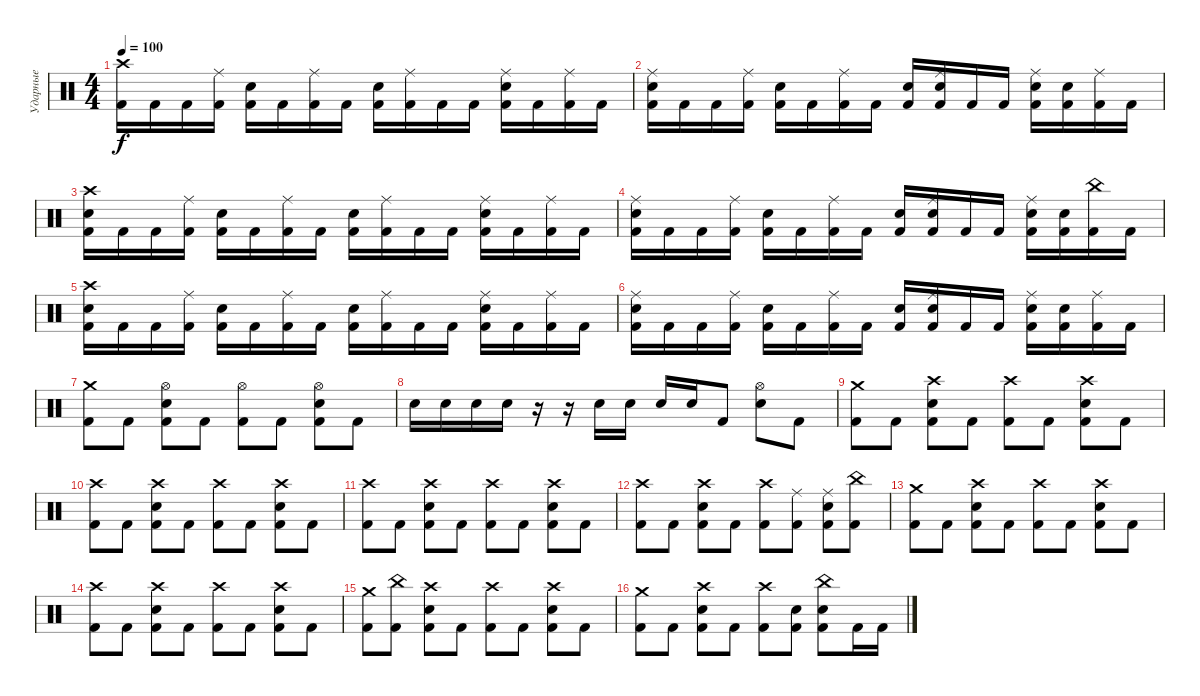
\track ("Ударные" "Ударные") {instrument percussion}
\staff {score}
\articulation defaults
\ts (4 4)
\tempo 100
\clef neutral
\ks c
("Crash high (hit)" "Kick (hit) 2").16{dy f} "Kick (hit) 2".16 "Kick (hit) 2".16 ("Ride (middle)" "Kick (hit) 2").16 ("Electric Snare (hit)" "Kick (hit) 2").16 "Kick (hit) 2".16 ("Ride (middle)" "Kick (hit) 2").16 "Kick (hit) 2".16 ("Electric Snare (hit)" "Kick (hit) 2").16 ("Ride (middle)" "Kick (hit) 2").16 "Kick (hit) 2".16 "Kick (hit) 2".16 ("Ride (middle)" "Electric Snare (hit)" "Kick (hit) 2").16 "Kick (hit) 2".16 ("Ride (middle)" "Kick (hit) 2").16 "Kick (hit) 2".16 |
("Ride (middle)" "Electric Snare (hit)" "Kick (hit) 2").16 "Kick (hit) 2".16 "Kick (hit) 2".16 ("Ride (middle)" "Kick (hit) 2").16 ("Electric Snare (hit)" "Kick (hit) 2").16 "Kick (hit) 2".16 ("Ride (middle)" "Kick (hit) 2").16 "Kick (hit) 2".16 ("Electric Snare (hit)" "Kick (hit) 2").16 ("Ride (middle)" "Electric Snare (hit)" "Kick (hit) 2").16 "Kick (hit) 2".16 "Kick (hit) 2".16 ("Ride (middle)" "Electric Snare (hit)" "Kick (hit) 2").16 ("Electric Snare (hit)" "Kick (hit) 2").16 ("Ride (middle)" "Kick (hit) 2").16 "Kick (hit) 2".16 |
("Crash high (hit)" "Electric Snare (hit)" "Kick (hit) 2").16 "Kick (hit) 2".16 "Kick (hit) 2".16 ("Ride (middle)" "Kick (hit) 2").16 ("Electric Snare (hit)" "Kick (hit) 2").16 "Kick (hit) 2".16 ("Ride (middle)" "Kick (hit) 2").16 "Kick (hit) 2".16 ("Electric Snare (hit)" "Kick (hit) 2").16 ("Ride (middle)" "Kick (hit) 2").16 "Kick (hit) 2".16 "Kick (hit) 2".16 ("Ride (middle)" "Electric Snare (hit)" "Kick (hit) 2").16 "Kick (hit) 2".16 ("Ride (middle)" "Kick (hit) 2").16 "Kick (hit) 2".16 |
("Ride (middle)" "Electric Snare (hit)" "Kick (hit) 2").16 "Kick (hit) 2".16 "Kick (hit) 2".16 ("Ride (middle)" "Kick (hit) 2").16 ("Electric Snare (hit)" "Kick (hit) 2").16 "Kick (hit) 2".16 ("Ride (middle)" "Kick (hit) 2").16 "Kick (hit) 2".16 ("Electric Snare (hit)" "Kick (hit) 2").16 ("Ride (middle)" "Electric Snare (hit)" "Kick (hit) 2").16 "Kick (hit) 2".16 "Kick (hit) 2".16 ("Ride (middle)" "Electric Snare (hit)" "Kick (hit) 2").16 ("Electric Snare (hit)" "Kick (hit) 2").16 ("China (hit)" "Kick (hit) 2").16 "Kick (hit) 2".16 |
("Crash high (hit)" "Electric Snare (hit)" "Kick (hit) 2").16 "Kick (hit) 2".16 "Kick (hit) 2".16 ("Ride (middle)" "Kick (hit) 2").16 ("Electric Snare (hit)" "Kick (hit) 2").16 "Kick (hit) 2".16 ("Ride (middle)" "Kick (hit) 2").16 "Kick (hit) 2".16 ("Electric Snare (hit)" "Kick (hit) 2").16 ("Ride (middle)" "Kick (hit) 2").16 "Kick (hit) 2".16 "Kick (hit) 2".16 ("Ride (middle)" "Electric Snare (hit)" "Kick (hit) 2").16 "Kick (hit) 2".16 ("Ride (middle)" "Kick (hit) 2").16 "Kick (hit) 2".16 |
("Ride (middle)" "Electric Snare (hit)" "Kick (hit) 2").16 "Kick (hit) 2".16 "Kick (hit) 2".16 ("Ride (middle)" "Kick (hit) 2").16 ("Electric Snare (hit)" "Kick (hit) 2").16 "Kick (hit) 2".16 ("Ride (middle)" "Kick (hit) 2").16 "Kick (hit) 2".16 ("Electric Snare (hit)" "Kick (hit) 2").16 ("Ride (middle)" "Electric Snare (hit)" "Kick (hit) 2").16 "Kick (hit) 2".16 "Kick (hit) 2".16 ("Ride (middle)" "Electric Snare (hit)" "Kick (hit) 2").16 ("Electric Snare (hit)" "Kick (hit) 2").16 ("Ride (middle)" "Kick (hit) 2").16 "Kick (hit) 2".16 |
("Crash medium (hit)" "Kick (hit) 2").8 "Kick (hit) 2".8 ("Hi-Hat (open)" "Electric Snare (hit)" "Kick (hit) 2").8 "Kick (hit) 2".8 ("Hi-Hat (open)" "Kick (hit) 2").8 "Kick (hit) 2".8 ("Hi-Hat (open)" "Electric Snare (hit)" "Kick (hit) 2").8 "Kick (hit) 2".8 |
"Electric Snare (hit)".16 "Electric Snare (hit)".16 "Electric Snare (hit)".16 "Electric Snare (hit)".16 r.16 r.16 "Electric Snare (hit)".16 "Electric Snare (hit)".16 "Electric Snare (hit)".16 "Electric Snare (hit)".16 "Kick (hit) 2".8 ("Hi-Hat (open)" "Electric Snare (hit)").8 "Kick (hit) 2".8 |
("Crash medium (hit)" "Kick (hit) 2").8 "Kick (hit) 2".8 ("Crash high (hit)" "Electric Snare (hit)" "Kick (hit) 2").8 "Kick (hit) 2".8 ("Crash high (hit)" "Kick (hit) 2").8 "Kick (hit) 2".8 ("Crash high (hit)" "Electric Snare (hit)" "Kick (hit) 2").8 "Kick (hit) 2".8 |
("Crash high (hit)" "Kick (hit) 2").8 "Kick (hit) 2".8 ("Crash high (hit)" "Electric Snare (hit)" "Kick (hit) 2").8 "Kick (hit) 2".8 ("Crash high (hit)" "Kick (hit) 2").8 "Kick (hit) 2".8 ("Crash high (hit)" "Electric Snare (hit)" "Kick (hit) 2").8 "Kick (hit) 2".8 |
("Crash high (hit)" "Kick (hit) 2").8 "Kick (hit) 2".8 ("Crash high (hit)" "Electric Snare (hit)" "Kick (hit) 2").8 "Kick (hit) 2".8 ("Crash high (hit)" "Kick (hit) 2").8 "Kick (hit) 2".8 ("Crash high (hit)" "Electric Snare (hit)" "Kick (hit) 2").8 "Kick (hit) 2".8 |
("Crash high (hit)" "Kick (hit) 2").8 "Kick (hit) 2".8 ("Crash high (hit)" "Electric Snare (hit)" "Kick (hit) 2").8 "Kick (hit) 2".8 ("Crash high (hit)" "Kick (hit) 2").8 ("Ride (middle)" "Kick (hit) 2").8 ("Ride (middle)" "Electric Snare (hit)" "Kick (hit) 2").8 ("China (hit)" "Kick (hit) 2").8 |
("Crash medium (hit)" "Kick (hit) 2").8 "Kick (hit) 2".8 ("Crash high (hit)" "Electric Snare (hit)" "Kick (hit) 2").8 "Kick (hit) 2".8 ("Crash high (hit)" "Kick (hit) 2").8 "Kick (hit) 2".8 ("Crash high (hit)" "Electric Snare (hit)" "Kick (hit) 2").8 "Kick (hit) 2".8 |
("Crash high (hit)" "Kick (hit) 2").8 "Kick (hit) 2".8 ("Crash high (hit)" "Electric Snare (hit)" "Kick (hit) 2").8 "Kick (hit) 2".8 ("Crash high (hit)" "Kick (hit) 2").8 "Kick (hit) 2".8 ("Crash high (hit)" "Electric Snare (hit)" "Kick (hit) 2").8 "Kick (hit) 2".8 |
("Crash medium (hit)" "Kick (hit) 2").8 ("China (hit)" "Kick (hit) 2").8 ("Crash high (hit)" "Electric Snare (hit)" "Kick (hit) 2").8 "Kick (hit) 2".8 ("Crash high (hit)" "Kick (hit) 2").8 "Kick (hit) 2".8 ("Crash high (hit)" "Electric Snare (hit)" "Kick (hit) 2").8 "Kick (hit) 2".8 |
("Crash medium (hit)" "Kick (hit) 2").8 "Kick (hit) 2".8 ("Crash high (hit)" "Electric Snare (hit)" "Kick (hit) 2").8 "Kick (hit) 2".8 ("Crash high (hit)" "Kick (hit) 2").8 ("Electric Snare (hit)" "Kick (hit) 2").8 ("China (hit)" "Electric Snare (hit)" "Kick (hit) 2").8 "Kick (hit) 2".16 "Kick (hit) 2".16
